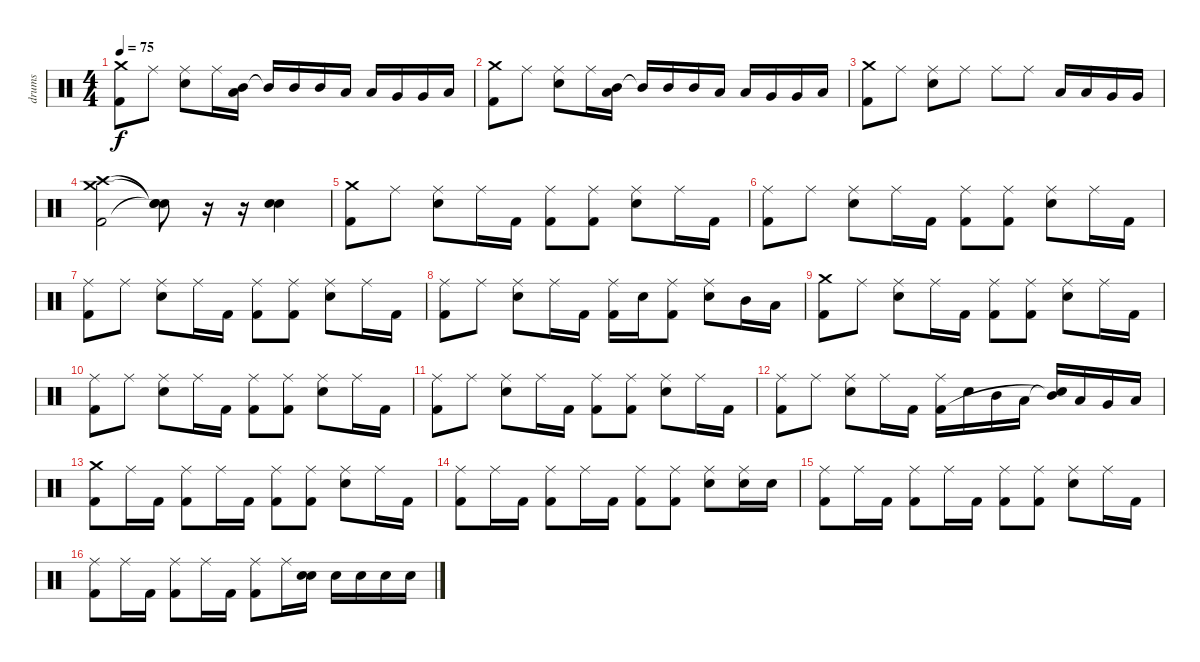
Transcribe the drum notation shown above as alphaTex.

\track ("drums" "drums") {instrument percussion}
\staff {score}
\articulation defaults
\ts (4 4)
\tempo 75
\clef neutral
\ks c
("Crash medium (hit)" "Kick (hit) 2").8{dy f} "Ride (middle)".8 ("Ride (middle)" "Snare (hit) 2").8 "Ride (middle)".16 ("Mid Tom (hit)" "Low Tom (hit)").16 "Mid Tom (hit)"{t}.16 "Mid Tom (hit)".16 "Mid Tom (hit)".16 "Low Tom (hit)".16 "Low Tom (hit)".16 "Very Low Tom (hit)".16 "Very Low Tom (hit)".16 "Low Floor Tom (hit)".16 |
("Crash medium (hit)" "Kick (hit) 2").8 "Ride (middle)".8 ("Ride (middle)" "Snare (hit) 2").8 "Ride (middle)".16 ("Mid Tom (hit)" "Low Tom (hit)").16 "Mid Tom (hit)"{t}.16 "Mid Tom (hit)".16 "Mid Tom (hit)".16 "Low Tom (hit)".16 "Low Tom (hit)".16 "Very Low Tom (hit)".16 "Very Low Tom (hit)".16 "Low Floor Tom (hit)".16 |
("Crash medium (hit)" "Kick (hit) 2").8 "Ride (middle)".8 ("Ride (middle)" "Snare (hit) 2").8 "Ride (middle)".8 "Ride (middle)".8 "Ride (middle)".8 "Low Tom (hit)".16 "Low Tom (hit)".16 "Very Low Tom (hit)".16 "Very Low Tom (hit)".16 |
("Crash medium (hit)" "Crash high (hit)" "Kick (hit) 2").2 ("Snare (hit)"{t} "Snare (hit)"{t} "Snare (hit)"{t}).8 r.16 r.16 ("Snare (hit) 2" "Snare (hit) 2").4 |
("Crash medium (hit)" "Kick (hit) 2").8 "Ride (middle)".8 ("Ride (middle)" "Snare (hit) 2").8 "Ride (middle)".16 "Kick (hit) 2".16 ("Ride (middle)" "Kick (hit) 2").8 ("Ride (middle)" "Kick (hit) 2").8 ("Ride (middle)" "Snare (hit) 2").8 "Ride (middle)".16 "Kick (hit) 2".16 |
("Ride (middle)" "Kick (hit) 2").8 "Ride (middle)".8 ("Ride (middle)" "Snare (hit) 2").8 "Ride (middle)".16 "Kick (hit) 2".16 ("Ride (middle)" "Kick (hit) 2").8 ("Ride (middle)" "Kick (hit) 2").8 ("Ride (middle)" "Snare (hit) 2").8 "Ride (middle)".16 "Kick (hit) 2".16 |
("Ride (middle)" "Kick (hit) 2").8 "Ride (middle)".8 ("Ride (middle)" "Snare (hit) 2").8 "Ride (middle)".16 "Kick (hit) 2".16 ("Ride (middle)" "Kick (hit) 2").8 ("Ride (middle)" "Kick (hit) 2").8 ("Ride (middle)" "Snare (hit) 2").8 "Ride (middle)".16 "Kick (hit) 2".16 |
("Ride (middle)" "Kick (hit) 2").8 "Ride (middle)".8 ("Ride (middle)" "Snare (hit) 2").8 "Ride (middle)".16 "Kick (hit) 2".16 ("Ride (middle)" "Kick (hit) 2").16 "Snare (hit) 2".16 ("Ride (middle)" "Kick (hit) 2").8 ("Ride (middle)" "Snare (hit) 2").8 "Mid Tom (hit)".16 "Low Tom (hit)".16 |
("Crash medium (hit)" "Kick (hit) 2").8 "Ride (middle)".8 ("Ride (middle)" "Snare (hit) 2").8 "Ride (middle)".16 "Kick (hit) 2".16 ("Ride (middle)" "Kick (hit) 2").8 ("Ride (middle)" "Kick (hit) 2").8 ("Ride (middle)" "Snare (hit) 2").8 "Ride (middle)".16 "Kick (hit) 2".16 |
("Ride (middle)" "Kick (hit) 2").8 "Ride (middle)".8 ("Ride (middle)" "Snare (hit) 2").8 "Ride (middle)".16 "Kick (hit) 2".16 ("Ride (middle)" "Kick (hit) 2").8 ("Ride (middle)" "Kick (hit) 2").8 ("Ride (middle)" "Snare (hit) 2").8 "Ride (middle)".16 "Kick (hit) 2".16 |
("Ride (middle)" "Kick (hit) 2").8 "Ride (middle)".8 ("Ride (middle)" "Snare (hit) 2").8 "Ride (middle)".16 "Kick (hit) 2".16 ("Ride (middle)" "Kick (hit) 2").8 ("Ride (middle)" "Kick (hit) 2").8 ("Ride (middle)" "Snare (hit) 2").8 "Ride (middle)".16 "Kick (hit) 2".16 |
("Ride (middle)" "Kick (hit) 2").8 "Ride (middle)".8 ("Ride (middle)" "Snare (hit) 2").8 "Ride (middle)".16 "Kick (hit) 2".16 ("Ride (middle)" "Kick (hit) 2").16 "Snare (hit) 2".16 "Mid Tom (hit)".16 "Low Tom (hit)".16 ("Mid Tom (hit)"{t} "Snare (hit)"{t}).16 "Low Tom (hit)".16 "Very Low Tom (hit)".16 "Low Floor Tom (hit)".16 |
("Crash medium (hit)" "Kick (hit) 2").8 "Ride (middle)".16 "Kick (hit) 2".16 ("Ride (middle)" "Kick (hit) 2").8 "Ride (middle)".16 "Kick (hit) 2".16 ("Ride (middle)" "Kick (hit) 2").8 ("Ride (middle)" "Kick (hit) 2").8 ("Ride (middle)" "Snare (hit) 2").8 "Ride (middle)".16 "Kick (hit) 2".16 |
("Ride (middle)" "Kick (hit) 2").8 "Ride (middle)".16 "Kick (hit) 2".16 ("Ride (middle)" "Kick (hit) 2").8 "Ride (middle)".16 "Kick (hit) 2".16 ("Ride (middle)" "Kick (hit) 2").8 ("Ride (middle)" "Kick (hit) 2").8 ("Ride (middle)" "Snare (hit) 2").8 ("Ride (middle)" "Snare (hit) 2").16 "Snare (hit) 2".16 |
("Ride (middle)" "Kick (hit) 2").8 "Ride (middle)".16 "Kick (hit) 2".16 ("Ride (middle)" "Kick (hit) 2").8 "Ride (middle)".16 "Kick (hit) 2".16 ("Ride (middle)" "Kick (hit) 2").8 ("Ride (middle)" "Kick (hit) 2").8 ("Ride (middle)" "Snare (hit) 2").8 "Ride (middle)".16 "Kick (hit) 2".16 |
("Ride (middle)" "Kick (hit) 2").8 "Ride (middle)".16 "Kick (hit) 2".16 ("Ride (middle)" "Kick (hit) 2").8 "Ride (middle)".16 "Kick (hit) 2".16 ("Ride (middle)" "Kick (hit) 2").8 "Ride (middle)".16 ("Snare (hit) 2" "Snare (hit) 2").16 "Snare (hit) 2".16 "Snare (hit) 2".16 "Snare (hit) 2".16 "Snare (hit) 2".16
